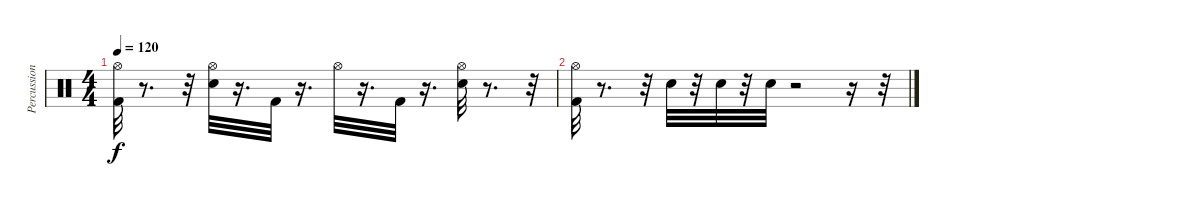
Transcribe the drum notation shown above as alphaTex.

\track ("Percussion" "Percussion") {instrument percussion}
\staff {score}
\articulation defaults
\ts (4 4)
\tempo 120
\clef neutral
\ks c
("Hi-Hat (open)" "Kick (hit) 2").32{dy f} r.8{d} r.32 ("Electric Snare (hit)" "Hi-Hat (open)").32 r.16{d} "Kick (hit) 2".32 r.16{d} "Hi-Hat (open)".32 r.16{d} "Kick (hit) 2".32 r.16{d} ("Electric Snare (hit)" "Hi-Hat (open)").32 r.8{d} r.32 |
("Hi-Hat (open)" "Kick (hit) 2").32 r.8{d} r.32 "Electric Snare (hit)".32 r.32 "Electric Snare (hit)".32 r.32 "Electric Snare (hit)".32 r.2 r.16 r.32
